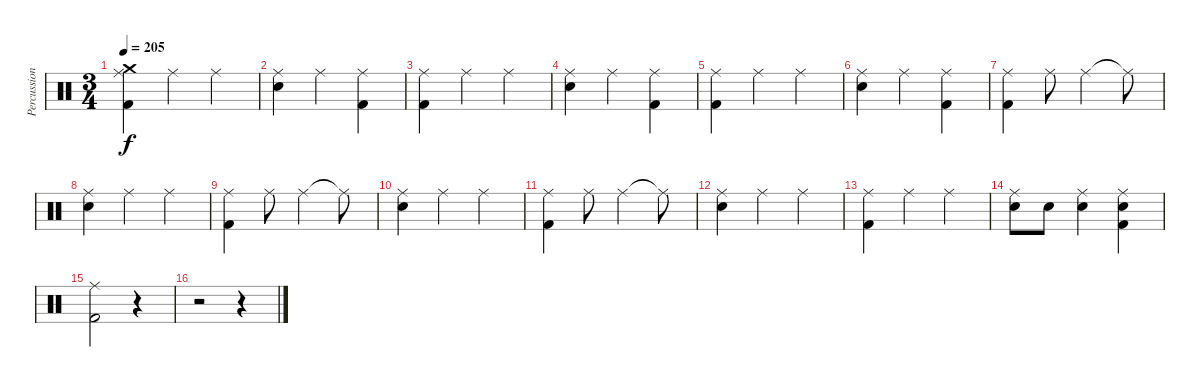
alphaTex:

\track ("Percussion" "Percussion") {instrument percussion}
\staff {score}
\articulation defaults
\ts (3 4)
\tempo 205
\clef neutral
\ks c
("Ride (middle)" "Crash medium (hit)" "Kick (hit) 2").4{dy f} "Ride (middle)".4 "Ride (middle)".4 |
("Ride (middle)" "Electric Snare (hit)").4 "Ride (middle)".4 ("Ride (middle)" "Kick (hit) 2").4 |
("Ride (middle)" "Kick (hit) 2").4 "Ride (middle)".4 "Ride (middle)".4 |
("Ride (middle)" "Electric Snare (hit)").4 "Ride (middle)".4 ("Ride (middle)" "Kick (hit) 2").4 |
("Ride (middle)" "Kick (hit) 2").4 "Ride (middle)".4 "Ride (middle)".4 |
("Ride (middle)" "Electric Snare (hit)").4 "Ride (middle)".4 ("Ride (middle)" "Kick (hit) 2").4 |
("Ride (middle)" "Kick (hit) 2").4 "Ride (middle)".8 "Ride (middle)".4 "Ride (middle)"{t}.8 |
("Ride (middle)" "Electric Snare (hit)").4 "Ride (middle)".4 "Ride (middle)".4 |
("Ride (middle)" "Kick (hit) 2").4 "Ride (middle)".8 "Ride (middle)".4 "Ride (middle)"{t}.8 |
("Ride (middle)" "Electric Snare (hit)").4 "Ride (middle)".4 "Ride (middle)".4 |
("Ride (middle)" "Kick (hit) 2").4 "Ride (middle)".8 "Ride (middle)".4 "Ride (middle)"{t}.8 |
("Ride (middle)" "Electric Snare (hit)").4 "Ride (middle)".4 "Ride (middle)".4 |
("Ride (middle)" "Kick (hit) 2").4 "Ride (middle)".4 "Ride (middle)".4 |
("Ride (middle)" "Electric Snare (hit)").8 "Electric Snare (hit)".8 ("Ride (middle)" "Electric Snare (hit)").4 ("Ride (middle)" "Electric Snare (hit)" "Kick (hit) 2").4 |
("Ride (middle)" "Kick (hit) 2").2 r.4 |
r.2 r.4
